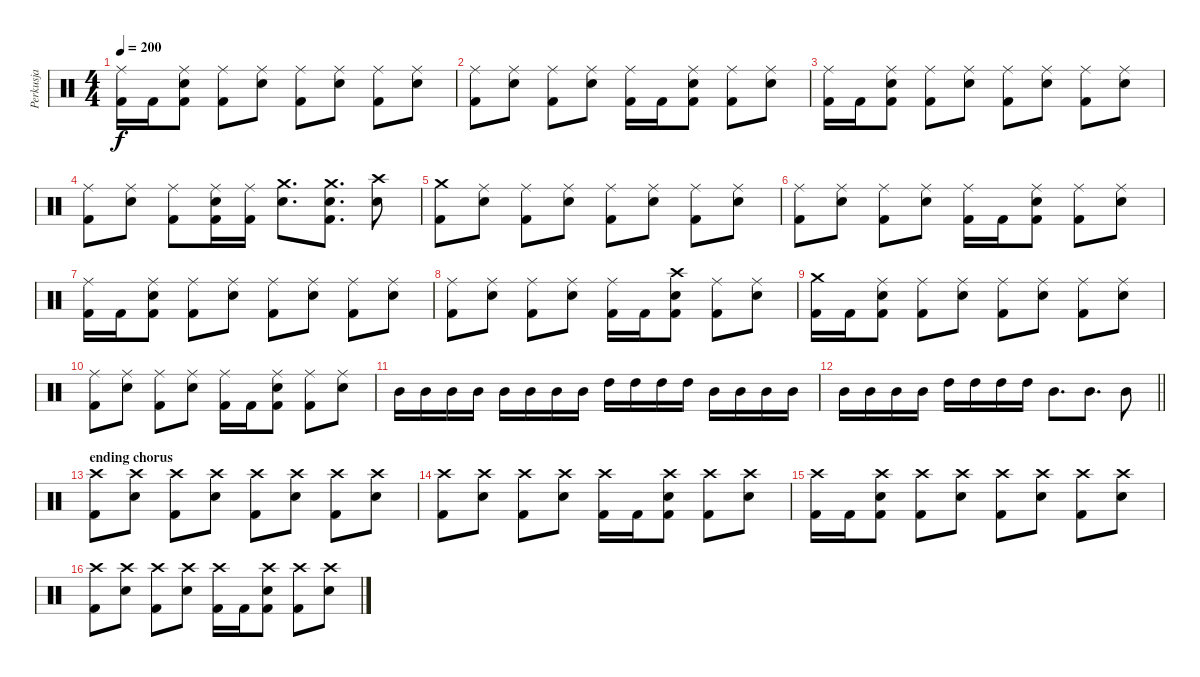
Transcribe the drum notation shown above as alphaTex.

\track ("Perkusja" "Perkusja") {instrument percussion}
\staff {score}
\articulation defaults
\ts (4 4)
\tempo 200
\clef neutral
\ks c
("Ride (middle)" "Kick (hit) 2").16{dy f} "Kick (hit) 2".16 ("Ride (middle)" "Electric Snare (hit)" "Kick (hit) 2").8 ("Ride (middle)" "Kick (hit) 2").8 ("Ride (middle)" "Electric Snare (hit)").8 ("Ride (middle)" "Kick (hit) 2").8 ("Ride (middle)" "Electric Snare (hit)").8 ("Ride (middle)" "Kick (hit) 2").8 ("Ride (middle)" "Electric Snare (hit)").8 |
("Ride (middle)" "Kick (hit) 2").8 ("Ride (middle)" "Electric Snare (hit)").8 ("Ride (middle)" "Kick (hit) 2").8 ("Ride (middle)" "Electric Snare (hit)").8 ("Ride (middle)" "Kick (hit) 2").16 "Kick (hit) 2".16 ("Ride (middle)" "Electric Snare (hit)" "Kick (hit) 2").8 ("Ride (middle)" "Kick (hit) 2").8 ("Ride (middle)" "Electric Snare (hit)").8 |
("Ride (middle)" "Kick (hit) 2").16 "Kick (hit) 2".16 ("Ride (middle)" "Electric Snare (hit)" "Kick (hit) 2").8 ("Ride (middle)" "Kick (hit) 2").8 ("Ride (middle)" "Electric Snare (hit)").8 ("Ride (middle)" "Kick (hit) 2").8 ("Ride (middle)" "Electric Snare (hit)").8 ("Ride (middle)" "Kick (hit) 2").8 ("Ride (middle)" "Electric Snare (hit)").8 |
("Ride (middle)" "Kick (hit) 2").8 ("Ride (middle)" "Electric Snare (hit)").8 ("Ride (middle)" "Kick (hit) 2").8 ("Ride (middle)" "Electric Snare (hit)" "Kick (hit) 2").16 ("Ride (middle)" "Kick (hit) 2").16 ("Crash medium (hit)" "Electric Snare (hit)").8{d} ("Crash medium (hit)" "Electric Snare (hit)" "Kick (hit) 2").8{d} ("Crash high (hit)" "Electric Snare (hit)").8 |
("Crash medium (hit)" "Kick (hit) 2").8 ("Ride (middle)" "Electric Snare (hit)").8 ("Ride (middle)" "Kick (hit) 2").8 ("Ride (middle)" "Electric Snare (hit)").8 ("Ride (middle)" "Kick (hit) 2").8 ("Ride (middle)" "Electric Snare (hit)").8 ("Ride (middle)" "Kick (hit) 2").8 ("Ride (middle)" "Electric Snare (hit)").8 |
("Ride (middle)" "Kick (hit) 2").8 ("Ride (middle)" "Electric Snare (hit)").8 ("Ride (middle)" "Kick (hit) 2").8 ("Ride (middle)" "Electric Snare (hit)").8 ("Ride (middle)" "Kick (hit) 2").16 "Kick (hit) 2".16 ("Ride (middle)" "Electric Snare (hit)" "Kick (hit) 2").8 ("Ride (middle)" "Kick (hit) 2").8 ("Ride (middle)" "Electric Snare (hit)").8 |
("Ride (middle)" "Kick (hit) 2").16 "Kick (hit) 2".16 ("Ride (middle)" "Electric Snare (hit)" "Kick (hit) 2").8 ("Ride (middle)" "Kick (hit) 2").8 ("Ride (middle)" "Electric Snare (hit)").8 ("Ride (middle)" "Kick (hit) 2").8 ("Ride (middle)" "Electric Snare (hit)").8 ("Ride (middle)" "Kick (hit) 2").8 ("Ride (middle)" "Electric Snare (hit)").8 |
("Ride (middle)" "Kick (hit) 2").8 ("Ride (middle)" "Electric Snare (hit)").8 ("Ride (middle)" "Kick (hit) 2").8 ("Ride (middle)" "Electric Snare (hit)").8 ("Ride (middle)" "Kick (hit) 2").16 "Kick (hit) 2".16 ("Crash high (hit)" "Electric Snare (hit)" "Kick (hit) 2").8 ("Ride (middle)" "Kick (hit) 2").8 ("Ride (middle)" "Electric Snare (hit)").8 |
("Crash medium (hit)" "Kick (hit) 2").16 "Kick (hit) 2".16 ("Ride (middle)" "Electric Snare (hit)" "Kick (hit) 2").8 ("Ride (middle)" "Kick (hit) 2").8 ("Ride (middle)" "Electric Snare (hit)").8 ("Ride (middle)" "Kick (hit) 2").8 ("Ride (middle)" "Electric Snare (hit)").8 ("Ride (middle)" "Kick (hit) 2").8 ("Ride (middle)" "Electric Snare (hit)").8 |
("Ride (middle)" "Kick (hit) 2").8 ("Ride (middle)" "Electric Snare (hit)").8 ("Ride (middle)" "Kick (hit) 2").8 ("Ride (middle)" "Electric Snare (hit)").8 ("Ride (middle)" "Kick (hit) 2").16 "Kick (hit) 2".16 ("Ride (middle)" "Electric Snare (hit)" "Kick (hit) 2").8 ("Ride (middle)" "Kick (hit) 2").8 ("Ride (middle)" "Electric Snare (hit)").8 |
"Mid Tom (hit)".16 "Mid Tom (hit)".16 "Mid Tom (hit)".16 "Mid Tom (hit)".16 "Mid Tom (hit)".16 "Mid Tom (hit)".16 "Mid Tom (hit)".16 "Mid Tom (hit)".16 "High Tom (hit)".16 "High Tom (hit)".16 "High Tom (hit)".16 "High Tom (hit)".16 "Mid Tom (hit)".16 "Mid Tom (hit)".16 "Mid Tom (hit)".16 "Mid Tom (hit)".16 |
\barLineRight lightlight "Mid Tom (hit)".16 "Mid Tom (hit)".16 "Mid Tom (hit)".16 "Mid Tom (hit)".16 "High Tom (hit)".16 "High Tom (hit)".16 "High Tom (hit)".16 "High Tom (hit)".16 "Mid Tom (hit)".8{d} "Mid Tom (hit)".8{d} "Mid Tom (hit)".8
|
\section ("" "ending chorus")
("Crash high (hit)" "Kick (hit) 2").8 ("Crash high (hit)" "Electric Snare (hit)").8 ("Crash high (hit)" "Kick (hit) 2").8 ("Crash high (hit)" "Electric Snare (hit)").8 ("Crash high (hit)" "Kick (hit) 2").8 ("Crash high (hit)" "Electric Snare (hit)").8 ("Crash high (hit)" "Kick (hit) 2").8 ("Crash high (hit)" "Electric Snare (hit)").8 |
("Crash high (hit)" "Kick (hit) 2").8 ("Crash high (hit)" "Electric Snare (hit)").8 ("Crash high (hit)" "Kick (hit) 2").8 ("Crash high (hit)" "Electric Snare (hit)").8 ("Crash high (hit)" "Kick (hit) 2").16 "Kick (hit) 2".16 ("Crash high (hit)" "Electric Snare (hit)" "Kick (hit) 2").8 ("Crash high (hit)" "Kick (hit) 2").8 ("Crash high (hit)" "Electric Snare (hit)").8 |
("Crash high (hit)" "Kick (hit) 2").16 "Kick (hit) 2".16 ("Crash high (hit)" "Electric Snare (hit)" "Kick (hit) 2").8 ("Crash high (hit)" "Kick (hit) 2").8 ("Crash high (hit)" "Electric Snare (hit)").8 ("Crash high (hit)" "Kick (hit) 2").8 ("Crash high (hit)" "Electric Snare (hit)").8 ("Crash high (hit)" "Kick (hit) 2").8 ("Crash high (hit)" "Electric Snare (hit)").8 |
("Crash high (hit)" "Kick (hit) 2").8 ("Crash high (hit)" "Electric Snare (hit)").8 ("Crash high (hit)" "Kick (hit) 2").8 ("Crash high (hit)" "Electric Snare (hit)").8 ("Crash high (hit)" "Kick (hit) 2").16 "Kick (hit) 2".16 ("Crash high (hit)" "Electric Snare (hit)" "Kick (hit) 2").8 ("Crash high (hit)" "Kick (hit) 2").8 ("Crash high (hit)" "Electric Snare (hit)").8
